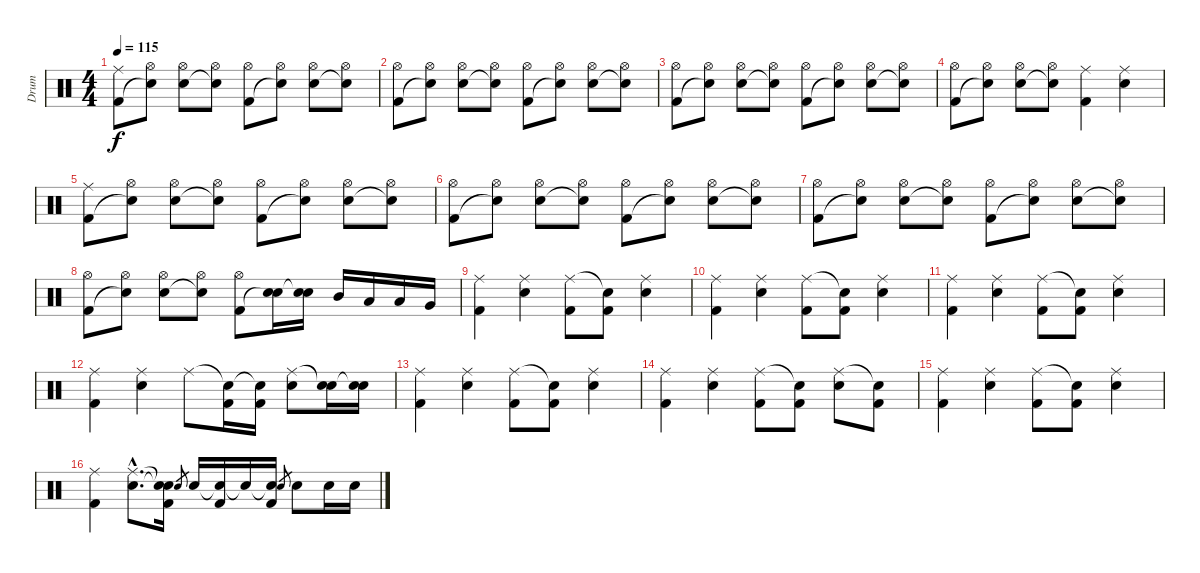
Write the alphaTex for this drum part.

\track ("Drum" "Drum") {instrument percussion}
\staff {score}
\articulation defaults
\ts (4 4)
\tempo 115
\clef neutral
\ks c
("Ride (middle)" "Kick (hit) 2").8{dy f} ("Hi-Hat (open)" "Snare (hit)"{t}).8 ("Hi-Hat (open)" "Electric Snare (hit)").8 ("Hi-Hat (open)" "Snare (hit)"{t}).8 ("Hi-Hat (open)" "Kick (hit) 2").8 ("Hi-Hat (open)" "Snare (hit)"{t}).8 ("Hi-Hat (open)" "Electric Snare (hit)").8 ("Hi-Hat (open)" "Snare (hit)"{t}).8 |
("Hi-Hat (open)" "Kick (hit) 2").8 ("Hi-Hat (open)" "Snare (hit)"{t}).8 ("Hi-Hat (open)" "Electric Snare (hit)").8 ("Hi-Hat (open)" "Snare (hit)"{t}).8 ("Hi-Hat (open)" "Kick (hit) 2").8 ("Hi-Hat (open)" "Snare (hit)"{t}).8 ("Hi-Hat (open)" "Electric Snare (hit)").8 ("Hi-Hat (open)" "Snare (hit)"{t}).8 |
("Hi-Hat (open)" "Kick (hit) 2").8 ("Hi-Hat (open)" "Snare (hit)"{t}).8 ("Hi-Hat (open)" "Electric Snare (hit)").8 ("Hi-Hat (open)" "Snare (hit)"{t}).8 ("Hi-Hat (open)" "Kick (hit) 2").8 ("Hi-Hat (open)" "Snare (hit)"{t}).8 ("Hi-Hat (open)" "Electric Snare (hit)").8 ("Hi-Hat (open)" "Snare (hit)"{t}).8 |
("Hi-Hat (open)" "Kick (hit) 2").8 ("Hi-Hat (open)" "Snare (hit)"{t}).8 ("Hi-Hat (open)" "Electric Snare (hit)").8 ("Hi-Hat (open)" "Snare (hit)"{t}).8 ("Ride (middle)" "Kick (hit) 2").4 ("Ride (middle)" "Electric Snare (hit)").4 |
("Ride (middle)" "Kick (hit) 2").8 ("Hi-Hat (open)" "Snare (hit)"{t}).8 ("Hi-Hat (open)" "Electric Snare (hit)").8 ("Hi-Hat (open)" "Snare (hit)"{t}).8 ("Hi-Hat (open)" "Kick (hit) 2").8 ("Hi-Hat (open)" "Snare (hit)"{t}).8 ("Hi-Hat (open)" "Electric Snare (hit)").8 ("Hi-Hat (open)" "Snare (hit)"{t}).8 |
("Hi-Hat (open)" "Kick (hit) 2").8 ("Hi-Hat (open)" "Snare (hit)"{t}).8 ("Hi-Hat (open)" "Electric Snare (hit)").8 ("Hi-Hat (open)" "Snare (hit)"{t}).8 ("Hi-Hat (open)" "Kick (hit) 2").8 ("Hi-Hat (open)" "Snare (hit)"{t}).8 ("Hi-Hat (open)" "Electric Snare (hit)").8 ("Hi-Hat (open)" "Snare (hit)"{t}).8 |
("Hi-Hat (open)" "Kick (hit) 2").8 ("Hi-Hat (open)" "Snare (hit)"{t}).8 ("Hi-Hat (open)" "Electric Snare (hit)").8 ("Hi-Hat (open)" "Snare (hit)"{t}).8 ("Hi-Hat (open)" "Kick (hit) 2").8 ("Hi-Hat (open)" "Snare (hit)"{t}).8 ("Hi-Hat (open)" "Electric Snare (hit)").8 ("Hi-Hat (open)" "Snare (hit)"{t}).8 |
("Hi-Hat (open)" "Kick (hit) 2").8 ("Hi-Hat (open)" "Snare (hit)"{t}).8 ("Hi-Hat (open)" "Electric Snare (hit)").8 ("Hi-Hat (open)" "Snare (hit)"{t}).8 ("Hi-Hat (open)" "Kick (hit) 2").8 ("Electric Snare (hit)" "Snare (hit)"{t}).16 ("Electric Snare (hit)" "Snare (hit)"{t}).16 "Mid Tom (hit)".16 "Low Tom (hit)".16 "Low Tom (hit)".16 "Very Low Tom (hit)".16 |
("Ride (middle)" "Kick (hit) 2").4 ("Ride (middle)" "Electric Snare (hit)").4 ("Ride (middle)" "Kick (hit) 2").8 ("Snare (hit)"{t} "Kick (hit) 2").8 ("Ride (middle)" "Electric Snare (hit)").4 |
("Ride (middle)" "Kick (hit) 2").4 ("Ride (middle)" "Electric Snare (hit)").4 ("Ride (middle)" "Kick (hit) 2").8 ("Snare (hit)"{t} "Kick (hit) 2").8 ("Ride (middle)" "Electric Snare (hit)").4 |
("Ride (middle)" "Kick (hit) 2").4 ("Ride (middle)" "Electric Snare (hit)").4 ("Ride (middle)" "Kick (hit) 2").8 ("Snare (hit)"{t} "Kick (hit) 2").8 ("Ride (middle)" "Electric Snare (hit)").4 |
("Ride (middle)" "Kick (hit) 2").4 ("Ride (middle)" "Electric Snare (hit)").4 "Ride (middle)".8 ("Snare (hit)"{t} "Kick (hit) 2").16 ("Snare (hit)"{t} "Kick (hit) 2").16 ("Ride (middle)" "Electric Snare (hit)").8 ("Snare (hit)"{t} "Electric Snare (hit)").16 ("Snare (hit)"{t} "Electric Snare (hit)").16 |
("Ride (middle)" "Kick (hit) 2").4 ("Ride (middle)" "Electric Snare (hit)").4 ("Ride (middle)" "Kick (hit) 2").8 ("Snare (hit)"{t} "Kick (hit) 2").8 ("Ride (middle)" "Electric Snare (hit)").4 |
("Ride (middle)" "Kick (hit) 2").4 ("Ride (middle)" "Electric Snare (hit)").4 ("Ride (middle)" "Kick (hit) 2").8 ("Snare (hit)"{t} "Kick (hit) 2").8 ("Ride (middle)" "Electric Snare (hit)").8 ("Snare (hit)"{t} "Kick (hit) 2").8 |
("Ride (middle)" "Kick (hit) 2").4 ("Ride (middle)" "Electric Snare (hit)").4 ("Ride (middle)" "Kick (hit) 2").8 ("Snare (hit)"{t} "Kick (hit) 2").8 ("Ride (middle)" "Electric Snare (hit)").4 |
("Ride (middle)" "Kick (hit) 2").4 ("Ride (middle)"{hac} "Electric Snare (hit)"{hac}).8{d} ("Snare (hit)"{t} "Snare (hit)"{t} "Kick (hit) 2").16 "Electric Snare (hit)".8{gr} "Electric Snare (hit)".16 ("Snare (hit)"{t} "Kick (hit) 2").16 "Snare (hit)"{t}.16 ("Snare (hit)"{t} "Kick (hit) 2").16 "Electric Snare (hit)".8{gr} "Electric Snare (hit)".8 "Electric Snare (hit)".16 "Electric Snare (hit)".16
